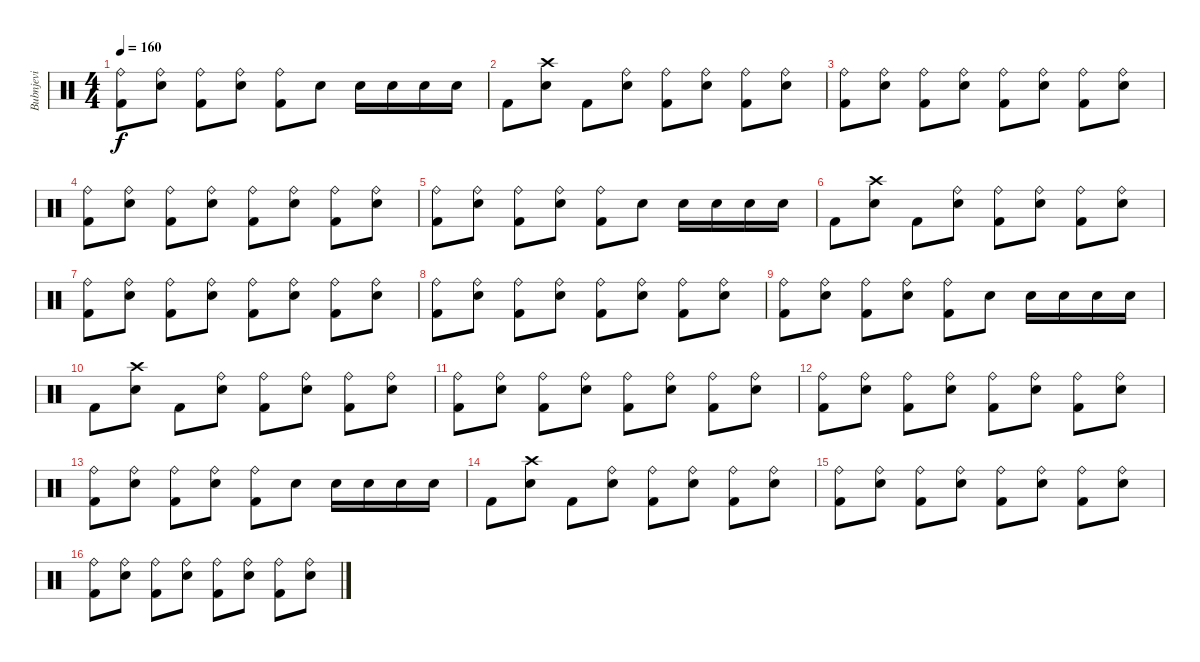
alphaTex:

\track ("Bubnjevi" "Bubnjevi") {instrument percussion}
\staff {score}
\articulation defaults
\ts (4 4)
\tempo 160
\clef neutral
\ks c
("Ride (bell)" "Kick (hit) 2").8{dy f} ("Ride (bell)" "Snare (hit) 2").8 ("Ride (bell)" "Kick (hit) 2").8 ("Ride (bell)" "Snare (hit) 2").8 ("Ride (bell)" "Kick (hit) 2").8 "Snare (hit) 2".8 "Snare (hit) 2".16 "Snare (hit) 2".16 "Snare (hit) 2".16 "Snare (hit) 2".16 |
"Kick (hit) 2".8 ("Crash high (hit)" "Snare (hit) 2").8 "Kick (hit) 2".8 ("Ride (bell)" "Snare (hit) 2").8 ("Ride (bell)" "Kick (hit) 2").8 ("Ride (bell)" "Snare (hit) 2").8 ("Ride (bell)" "Kick (hit) 2").8 ("Ride (bell)" "Snare (hit) 2").8 |
("Ride (bell)" "Kick (hit) 2").8 ("Ride (bell)" "Snare (hit) 2").8 ("Ride (bell)" "Kick (hit) 2").8 ("Ride (bell)" "Snare (hit) 2").8 ("Ride (bell)" "Kick (hit) 2").8 ("Ride (bell)" "Snare (hit) 2").8 ("Ride (bell)" "Kick (hit) 2").8 ("Ride (bell)" "Snare (hit) 2").8 |
("Ride (bell)" "Kick (hit) 2").8 ("Ride (bell)" "Snare (hit) 2").8 ("Ride (bell)" "Kick (hit) 2").8 ("Ride (bell)" "Snare (hit) 2").8 ("Ride (bell)" "Kick (hit) 2").8 ("Ride (bell)" "Snare (hit) 2").8 ("Ride (bell)" "Kick (hit) 2").8 ("Ride (bell)" "Snare (hit) 2").8 |
("Ride (bell)" "Kick (hit) 2").8 ("Ride (bell)" "Snare (hit) 2").8 ("Ride (bell)" "Kick (hit) 2").8 ("Ride (bell)" "Snare (hit) 2").8 ("Ride (bell)" "Kick (hit) 2").8 "Snare (hit) 2".8 "Snare (hit) 2".16 "Snare (hit) 2".16 "Snare (hit) 2".16 "Snare (hit) 2".16 |
"Kick (hit) 2".8 ("Crash high (hit)" "Snare (hit) 2").8 "Kick (hit) 2".8 ("Ride (bell)" "Snare (hit) 2").8 ("Ride (bell)" "Kick (hit) 2").8 ("Ride (bell)" "Snare (hit) 2").8 ("Ride (bell)" "Kick (hit) 2").8 ("Ride (bell)" "Snare (hit) 2").8 |
("Ride (bell)" "Kick (hit) 2").8 ("Ride (bell)" "Snare (hit) 2").8 ("Ride (bell)" "Kick (hit) 2").8 ("Ride (bell)" "Snare (hit) 2").8 ("Ride (bell)" "Kick (hit) 2").8 ("Ride (bell)" "Snare (hit) 2").8 ("Ride (bell)" "Kick (hit) 2").8 ("Ride (bell)" "Snare (hit) 2").8 |
("Ride (bell)" "Kick (hit) 2").8 ("Ride (bell)" "Snare (hit) 2").8 ("Ride (bell)" "Kick (hit) 2").8 ("Ride (bell)" "Snare (hit) 2").8 ("Ride (bell)" "Kick (hit) 2").8 ("Ride (bell)" "Snare (hit) 2").8 ("Ride (bell)" "Kick (hit) 2").8 ("Ride (bell)" "Snare (hit) 2").8 |
("Ride (bell)" "Kick (hit) 2").8 ("Ride (bell)" "Snare (hit) 2").8 ("Ride (bell)" "Kick (hit) 2").8 ("Ride (bell)" "Snare (hit) 2").8 ("Ride (bell)" "Kick (hit) 2").8 "Snare (hit) 2".8 "Snare (hit) 2".16 "Snare (hit) 2".16 "Snare (hit) 2".16 "Snare (hit) 2".16 |
"Kick (hit) 2".8 ("Crash high (hit)" "Snare (hit) 2").8 "Kick (hit) 2".8 ("Ride (bell)" "Snare (hit) 2").8 ("Ride (bell)" "Kick (hit) 2").8 ("Ride (bell)" "Snare (hit) 2").8 ("Ride (bell)" "Kick (hit) 2").8 ("Ride (bell)" "Snare (hit) 2").8 |
("Ride (bell)" "Kick (hit) 2").8 ("Ride (bell)" "Snare (hit) 2").8 ("Ride (bell)" "Kick (hit) 2").8 ("Ride (bell)" "Snare (hit) 2").8 ("Ride (bell)" "Kick (hit) 2").8 ("Ride (bell)" "Snare (hit) 2").8 ("Ride (bell)" "Kick (hit) 2").8 ("Ride (bell)" "Snare (hit) 2").8 |
("Ride (bell)" "Kick (hit) 2").8 ("Ride (bell)" "Snare (hit) 2").8 ("Ride (bell)" "Kick (hit) 2").8 ("Ride (bell)" "Snare (hit) 2").8 ("Ride (bell)" "Kick (hit) 2").8 ("Ride (bell)" "Snare (hit) 2").8 ("Ride (bell)" "Kick (hit) 2").8 ("Ride (bell)" "Snare (hit) 2").8 |
("Ride (bell)" "Kick (hit) 2").8 ("Ride (bell)" "Snare (hit) 2").8 ("Ride (bell)" "Kick (hit) 2").8 ("Ride (bell)" "Snare (hit) 2").8 ("Ride (bell)" "Kick (hit) 2").8 "Snare (hit) 2".8 "Snare (hit) 2".16 "Snare (hit) 2".16 "Snare (hit) 2".16 "Snare (hit) 2".16 |
"Kick (hit) 2".8 ("Crash high (hit)" "Snare (hit) 2").8 "Kick (hit) 2".8 ("Ride (bell)" "Snare (hit) 2").8 ("Ride (bell)" "Kick (hit) 2").8 ("Ride (bell)" "Snare (hit) 2").8 ("Ride (bell)" "Kick (hit) 2").8 ("Ride (bell)" "Snare (hit) 2").8 |
("Ride (bell)" "Kick (hit) 2").8 ("Ride (bell)" "Snare (hit) 2").8 ("Ride (bell)" "Kick (hit) 2").8 ("Ride (bell)" "Snare (hit) 2").8 ("Ride (bell)" "Kick (hit) 2").8 ("Ride (bell)" "Snare (hit) 2").8 ("Ride (bell)" "Kick (hit) 2").8 ("Ride (bell)" "Snare (hit) 2").8 |
("Ride (bell)" "Kick (hit) 2").8 ("Ride (bell)" "Snare (hit) 2").8 ("Ride (bell)" "Kick (hit) 2").8 ("Ride (bell)" "Snare (hit) 2").8 ("Ride (bell)" "Kick (hit) 2").8 ("Ride (bell)" "Snare (hit) 2").8 ("Ride (bell)" "Kick (hit) 2").8 ("Ride (bell)" "Snare (hit) 2").8
